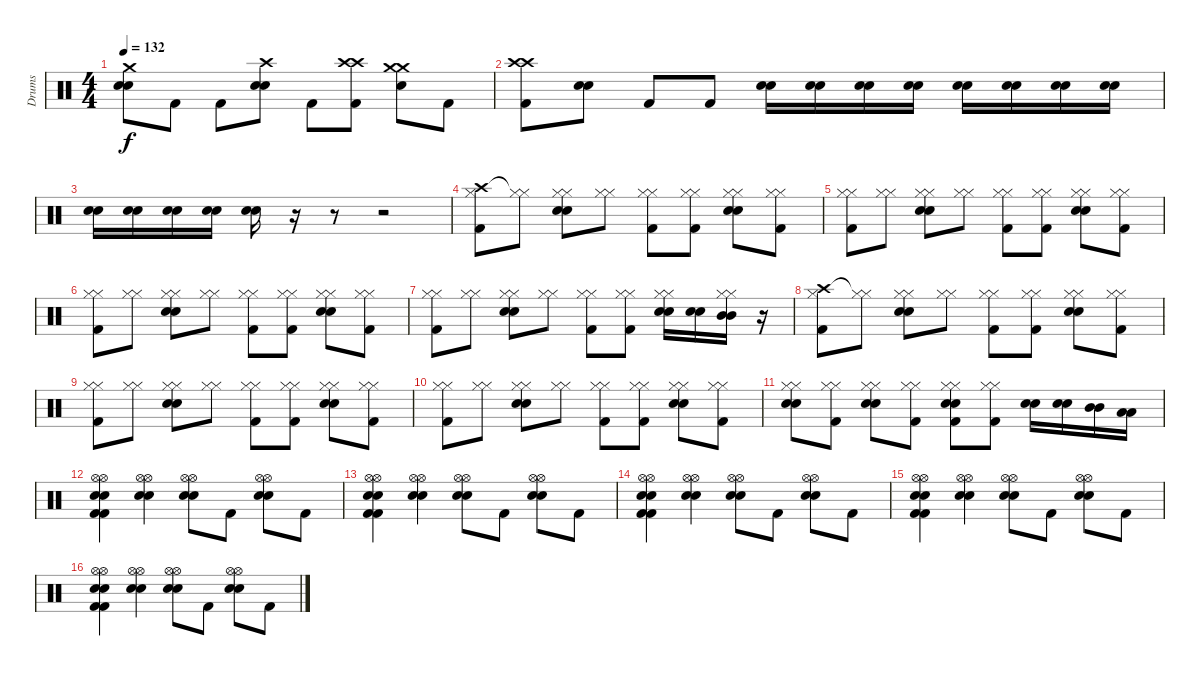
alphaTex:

\track ("Drums" "Drums") {instrument percussion}
\staff {score}
\articulation defaults
\ts (4 4)
\tempo 132
\clef neutral
\ks c
("Crash medium (hit)" "Electric Snare (hit)" "Electric Snare (hit)").8{dy f} "Kick (hit) 2".8 "Kick (hit) 2".8 ("Crash high (hit)" "Electric Snare (hit)" "Electric Snare (hit)").8 "Kick (hit) 2".8 ("Crash high (hit)" "Crash high (hit)" "Kick (hit) 2").8 ("Crash medium (hit)" "Crash medium (hit)" "Electric Snare (hit)").8 "Kick (hit) 2".8 |
("Crash high (hit)" "Crash high (hit)" "Kick (hit) 2").8 ("Electric Snare (hit)" "Electric Snare (hit)").8 "Kick (hit) 2".8 "Kick (hit) 2".8 ("Electric Snare (hit)" "Electric Snare (hit)").16 ("Electric Snare (hit)" "Electric Snare (hit)").16 ("Electric Snare (hit)" "Electric Snare (hit)").16 ("Electric Snare (hit)" "Electric Snare (hit)").16 ("Electric Snare (hit)" "Electric Snare (hit)").16 ("Electric Snare (hit)" "Electric Snare (hit)").16 ("Electric Snare (hit)" "Electric Snare (hit)").16 ("Electric Snare (hit)" "Electric Snare (hit)").16 |
("Electric Snare (hit)" "Electric Snare (hit)").16 ("Electric Snare (hit)" "Electric Snare (hit)").16 ("Electric Snare (hit)" "Electric Snare (hit)").16 ("Electric Snare (hit)" "Electric Snare (hit)").16 ("Electric Snare (hit)" "Electric Snare (hit)").16 r.16 r.8 r.2 |
("Crash high (hit)" "Hi-Hat (closed)" "Kick (hit) 2").8 ("Hi-Hat (closed)"{t} "Hi-Hat (closed)").8 ("Hi-Hat (closed)" "Hi-Hat (closed)" "Electric Snare (hit)" "Electric Snare (hit)").8 ("Hi-Hat (closed)" "Hi-Hat (closed)").8 ("Hi-Hat (closed)" "Hi-Hat (closed)" "Kick (hit) 2").8 ("Hi-Hat (closed)" "Hi-Hat (closed)" "Kick (hit) 2").8 ("Hi-Hat (closed)" "Hi-Hat (closed)" "Electric Snare (hit)" "Electric Snare (hit)").8 ("Hi-Hat (closed)" "Hi-Hat (closed)" "Kick (hit) 2").8 |
("Hi-Hat (closed)" "Hi-Hat (closed)" "Kick (hit) 2").8 ("Hi-Hat (closed)" "Hi-Hat (closed)").8 ("Hi-Hat (closed)" "Hi-Hat (closed)" "Electric Snare (hit)" "Electric Snare (hit)").8 ("Hi-Hat (closed)" "Hi-Hat (closed)").8 ("Hi-Hat (closed)" "Hi-Hat (closed)" "Kick (hit) 2").8 ("Hi-Hat (closed)" "Hi-Hat (closed)" "Kick (hit) 2").8 ("Hi-Hat (closed)" "Hi-Hat (closed)" "Electric Snare (hit)" "Electric Snare (hit)").8 ("Hi-Hat (closed)" "Hi-Hat (closed)" "Kick (hit) 2").8 |
("Hi-Hat (closed)" "Hi-Hat (closed)" "Kick (hit) 2").8 ("Hi-Hat (closed)" "Hi-Hat (closed)").8 ("Hi-Hat (closed)" "Hi-Hat (closed)" "Electric Snare (hit)" "Electric Snare (hit)").8 ("Hi-Hat (closed)" "Hi-Hat (closed)").8 ("Hi-Hat (closed)" "Hi-Hat (closed)" "Kick (hit) 2").8 ("Hi-Hat (closed)" "Hi-Hat (closed)" "Kick (hit) 2").8 ("Hi-Hat (closed)" "Hi-Hat (closed)" "Electric Snare (hit)" "Electric Snare (hit)").8 ("Hi-Hat (closed)" "Hi-Hat (closed)" "Kick (hit) 2").8 |
("Hi-Hat (closed)" "Hi-Hat (closed)" "Kick (hit) 2").8 ("Hi-Hat (closed)" "Hi-Hat (closed)").8 ("Hi-Hat (closed)" "Hi-Hat (closed)" "Electric Snare (hit)" "Electric Snare (hit)").8 ("Hi-Hat (closed)" "Hi-Hat (closed)").8 ("Hi-Hat (closed)" "Hi-Hat (closed)" "Kick (hit) 2").8 ("Hi-Hat (closed)" "Hi-Hat (closed)" "Kick (hit) 2").8 ("Hi-Hat (closed)" "Hi-Hat (closed)" "Electric Snare (hit)" "Electric Snare (hit)").16 ("Electric Snare (hit)" "Electric Snare (hit)").16 ("Hi-Hat (closed)" "Hi-Hat (closed)" "Mid Tom (hit)" "Mid Tom (hit)").16 r.16 |
("Crash high (hit)" "Hi-Hat (closed)" "Kick (hit) 2").8 ("Hi-Hat (closed)"{t} "Hi-Hat (closed)").8 ("Hi-Hat (closed)" "Hi-Hat (closed)" "Electric Snare (hit)" "Electric Snare (hit)").8 ("Hi-Hat (closed)" "Hi-Hat (closed)").8 ("Hi-Hat (closed)" "Hi-Hat (closed)" "Kick (hit) 2").8 ("Hi-Hat (closed)" "Hi-Hat (closed)" "Kick (hit) 2").8 ("Hi-Hat (closed)" "Hi-Hat (closed)" "Electric Snare (hit)" "Electric Snare (hit)").8 ("Hi-Hat (closed)" "Hi-Hat (closed)" "Kick (hit) 2").8 |
("Hi-Hat (closed)" "Hi-Hat (closed)" "Kick (hit) 2").8 ("Hi-Hat (closed)" "Hi-Hat (closed)").8 ("Hi-Hat (closed)" "Hi-Hat (closed)" "Electric Snare (hit)" "Electric Snare (hit)").8 ("Hi-Hat (closed)" "Hi-Hat (closed)").8 ("Hi-Hat (closed)" "Hi-Hat (closed)" "Kick (hit) 2").8 ("Hi-Hat (closed)" "Hi-Hat (closed)" "Kick (hit) 2").8 ("Hi-Hat (closed)" "Hi-Hat (closed)" "Electric Snare (hit)" "Electric Snare (hit)").8 ("Hi-Hat (closed)" "Hi-Hat (closed)" "Kick (hit) 2").8 |
("Hi-Hat (closed)" "Hi-Hat (closed)" "Kick (hit) 2").8 ("Hi-Hat (closed)" "Hi-Hat (closed)").8 ("Hi-Hat (closed)" "Hi-Hat (closed)" "Electric Snare (hit)" "Electric Snare (hit)").8 ("Hi-Hat (closed)" "Hi-Hat (closed)").8 ("Hi-Hat (closed)" "Hi-Hat (closed)" "Kick (hit) 2").8 ("Hi-Hat (closed)" "Hi-Hat (closed)" "Kick (hit) 2").8 ("Hi-Hat (closed)" "Hi-Hat (closed)" "Electric Snare (hit)" "Electric Snare (hit)").8 ("Hi-Hat (closed)" "Hi-Hat (closed)" "Kick (hit) 2").8 |
("Hi-Hat (closed)" "Hi-Hat (closed)" "Electric Snare (hit)" "Electric Snare (hit)").8 ("Hi-Hat (closed)" "Hi-Hat (closed)" "Kick (hit) 2").8 ("Hi-Hat (closed)" "Hi-Hat (closed)" "Electric Snare (hit)" "Electric Snare (hit)").8 ("Hi-Hat (closed)" "Hi-Hat (closed)" "Kick (hit) 2").8 ("Hi-Hat (closed)" "Hi-Hat (closed)" "Electric Snare (hit)" "Electric Snare (hit)" "Kick (hit) 2").8 ("Hi-Hat (closed)" "Hi-Hat (closed)" "Kick (hit) 2").8 ("Electric Snare (hit)" "Electric Snare (hit)").16 ("Electric Snare (hit)" "Electric Snare (hit)").16 ("Mid Tom (hit)" "Mid Tom (hit)").16 ("Low Tom (hit)" "Low Tom (hit)").16 |
("Hi-Hat (open)" "Hi-Hat (open)" "Electric Snare (hit)" "Electric Snare (hit)" "Kick (hit) 2" "Kick (hit) 2").4 ("Hi-Hat (open)" "Hi-Hat (open)" "Electric Snare (hit)" "Electric Snare (hit)").4 ("Hi-Hat (open)" "Hi-Hat (open)" "Electric Snare (hit)" "Electric Snare (hit)").8 "Kick (hit) 2".8 ("Hi-Hat (open)" "Hi-Hat (open)" "Electric Snare (hit)" "Electric Snare (hit)").8 "Kick (hit) 2".8 |
("Hi-Hat (open)" "Hi-Hat (open)" "Electric Snare (hit)" "Electric Snare (hit)" "Kick (hit) 2" "Kick (hit) 2").4 ("Hi-Hat (open)" "Hi-Hat (open)" "Electric Snare (hit)" "Electric Snare (hit)").4 ("Hi-Hat (open)" "Hi-Hat (open)" "Electric Snare (hit)" "Electric Snare (hit)").8 "Kick (hit) 2".8 ("Hi-Hat (open)" "Hi-Hat (open)" "Electric Snare (hit)" "Electric Snare (hit)").8 "Kick (hit) 2".8 |
("Hi-Hat (open)" "Hi-Hat (open)" "Electric Snare (hit)" "Electric Snare (hit)" "Kick (hit) 2" "Kick (hit) 2").4 ("Hi-Hat (open)" "Hi-Hat (open)" "Electric Snare (hit)" "Electric Snare (hit)").4 ("Hi-Hat (open)" "Hi-Hat (open)" "Electric Snare (hit)" "Electric Snare (hit)").8 "Kick (hit) 2".8 ("Hi-Hat (open)" "Hi-Hat (open)" "Electric Snare (hit)" "Electric Snare (hit)").8 "Kick (hit) 2".8 |
("Hi-Hat (open)" "Hi-Hat (open)" "Electric Snare (hit)" "Electric Snare (hit)" "Kick (hit) 2" "Kick (hit) 2").4 ("Hi-Hat (open)" "Hi-Hat (open)" "Electric Snare (hit)" "Electric Snare (hit)").4 ("Hi-Hat (open)" "Hi-Hat (open)" "Electric Snare (hit)" "Electric Snare (hit)").8 "Kick (hit) 2".8 ("Hi-Hat (open)" "Hi-Hat (open)" "Electric Snare (hit)" "Electric Snare (hit)").8 "Kick (hit) 2".8 |
("Hi-Hat (open)" "Hi-Hat (open)" "Electric Snare (hit)" "Electric Snare (hit)" "Kick (hit) 2" "Kick (hit) 2").4 ("Hi-Hat (open)" "Hi-Hat (open)" "Electric Snare (hit)" "Electric Snare (hit)").4 ("Hi-Hat (open)" "Hi-Hat (open)" "Electric Snare (hit)" "Electric Snare (hit)").8 "Kick (hit) 2".8 ("Hi-Hat (open)" "Hi-Hat (open)" "Electric Snare (hit)" "Electric Snare (hit)").8 "Kick (hit) 2".8
